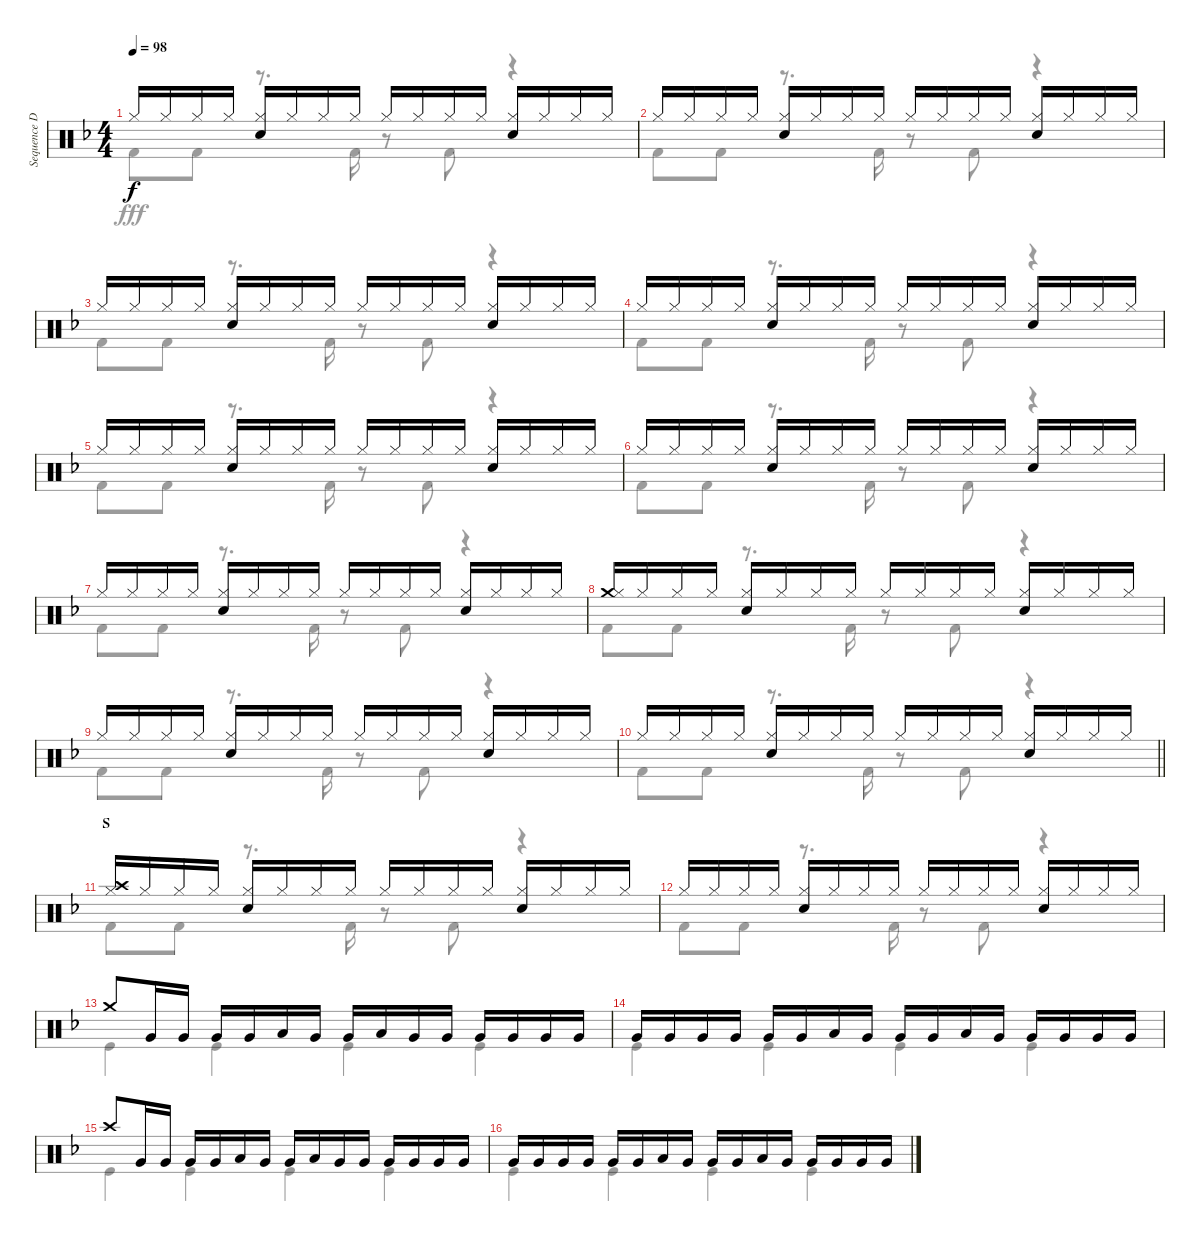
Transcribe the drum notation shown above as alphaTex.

\track ("Sequence Drums I" "Sequence D") {instrument percussion}
\staff {score}
\articulation defaults
\voice
\ts (4 4)
\tempo 98
\clef neutral
\ks f "Hi-Hat (closed)".16{dy f} "Hi-Hat (closed)".16 "Hi-Hat (closed)".16 "Hi-Hat (closed)".16
("Hi-Hat (closed)" "Electric Snare (hit)").16 "Hi-Hat (closed)".16 "Hi-Hat (closed)".16 "Hi-Hat (closed)".16 "Hi-Hat (closed)".16 "Hi-Hat (closed)".16 "Hi-Hat (closed)".16 "Hi-Hat (closed)".16 ("Hi-Hat (closed)" "Electric Snare (hit)").16 "Hi-Hat (closed)".16 "Hi-Hat (closed)".16 "Hi-Hat (closed)".16 |
"Hi-Hat (closed)".16 "Hi-Hat (closed)".16 "Hi-Hat (closed)".16 "Hi-Hat (closed)".16 ("Hi-Hat (closed)" "Electric Snare (hit)").16 "Hi-Hat (closed)".16 "Hi-Hat (closed)".16 "Hi-Hat (closed)".16 "Hi-Hat (closed)".16 "Hi-Hat (closed)".16 "Hi-Hat (closed)".16 "Hi-Hat (closed)".16 ("Hi-Hat (closed)" "Electric Snare (hit)").16 "Hi-Hat (closed)".16 "Hi-Hat (closed)".16 "Hi-Hat (closed)".16 |
"Hi-Hat (closed)".16 "Hi-Hat (closed)".16 "Hi-Hat (closed)".16 "Hi-Hat (closed)".16 ("Hi-Hat (closed)" "Electric Snare (hit)").16 "Hi-Hat (closed)".16 "Hi-Hat (closed)".16 "Hi-Hat (closed)".16 "Hi-Hat (closed)".16 "Hi-Hat (closed)".16 "Hi-Hat (closed)".16 "Hi-Hat (closed)".16 ("Hi-Hat (closed)" "Electric Snare (hit)").16 "Hi-Hat (closed)".16 "Hi-Hat (closed)".16 "Hi-Hat (closed)".16 |
"Hi-Hat (closed)".16 "Hi-Hat (closed)".16 "Hi-Hat (closed)".16 "Hi-Hat (closed)".16 ("Hi-Hat (closed)" "Electric Snare (hit)").16 "Hi-Hat (closed)".16 "Hi-Hat (closed)".16 "Hi-Hat (closed)".16 "Hi-Hat (closed)".16 "Hi-Hat (closed)".16 "Hi-Hat (closed)".16 "Hi-Hat (closed)".16 ("Hi-Hat (closed)" "Electric Snare (hit)").16 "Hi-Hat (closed)".16 "Hi-Hat (closed)".16 "Hi-Hat (closed)".16 |
"Hi-Hat (closed)".16 "Hi-Hat (closed)".16 "Hi-Hat (closed)".16 "Hi-Hat (closed)".16 ("Hi-Hat (closed)" "Electric Snare (hit)").16 "Hi-Hat (closed)".16 "Hi-Hat (closed)".16 "Hi-Hat (closed)".16 "Hi-Hat (closed)".16 "Hi-Hat (closed)".16 "Hi-Hat (closed)".16 "Hi-Hat (closed)".16 ("Hi-Hat (closed)" "Electric Snare (hit)").16 "Hi-Hat (closed)".16 "Hi-Hat (closed)".16 "Hi-Hat (closed)".16 |
"Hi-Hat (closed)".16 "Hi-Hat (closed)".16 "Hi-Hat (closed)".16 "Hi-Hat (closed)".16 ("Hi-Hat (closed)" "Electric Snare (hit)").16 "Hi-Hat (closed)".16 "Hi-Hat (closed)".16 "Hi-Hat (closed)".16 "Hi-Hat (closed)".16 "Hi-Hat (closed)".16 "Hi-Hat (closed)".16 "Hi-Hat (closed)".16 ("Hi-Hat (closed)" "Electric Snare (hit)").16 "Hi-Hat (closed)".16 "Hi-Hat (closed)".16 "Hi-Hat (closed)".16 |
"Hi-Hat (closed)".16 "Hi-Hat (closed)".16 "Hi-Hat (closed)".16 "Hi-Hat (closed)".16 ("Hi-Hat (closed)" "Electric Snare (hit)").16 "Hi-Hat (closed)".16 "Hi-Hat (closed)".16 "Hi-Hat (closed)".16 "Hi-Hat (closed)".16 "Hi-Hat (closed)".16 "Hi-Hat (closed)".16 "Hi-Hat (closed)".16 ("Hi-Hat (closed)" "Electric Snare (hit)").16 "Hi-Hat (closed)".16 "Hi-Hat (closed)".16 "Hi-Hat (closed)".16 |
("Crash medium (hit)" "Hi-Hat (closed)").16 "Hi-Hat (closed)".16 "Hi-Hat (closed)".16 "Hi-Hat (closed)".16 ("Hi-Hat (closed)" "Electric Snare (hit)").16 "Hi-Hat (closed)".16 "Hi-Hat (closed)".16 "Hi-Hat (closed)".16 "Hi-Hat (closed)".16 "Hi-Hat (closed)".16 "Hi-Hat (closed)".16 "Hi-Hat (closed)".16 ("Hi-Hat (closed)" "Electric Snare (hit)").16 "Hi-Hat (closed)".16 "Hi-Hat (closed)".16 "Hi-Hat (closed)".16 |
"Hi-Hat (closed)".16 "Hi-Hat (closed)".16 "Hi-Hat (closed)".16 "Hi-Hat (closed)".16 ("Hi-Hat (closed)" "Electric Snare (hit)").16 "Hi-Hat (closed)".16 "Hi-Hat (closed)".16 "Hi-Hat (closed)".16 "Hi-Hat (closed)".16 "Hi-Hat (closed)".16 "Hi-Hat (closed)".16 "Hi-Hat (closed)".16 ("Hi-Hat (closed)" "Electric Snare (hit)").16 "Hi-Hat (closed)".16 "Hi-Hat (closed)".16 "Hi-Hat (closed)".16 |
\barLineRight lightlight "Hi-Hat (closed)".16 "Hi-Hat (closed)".16 "Hi-Hat (closed)".16 "Hi-Hat (closed)".16
("Hi-Hat (closed)" "Electric Snare (hit)").16 "Hi-Hat (closed)".16 "Hi-Hat (closed)".16 "Hi-Hat (closed)".16 "Hi-Hat (closed)".16 "Hi-Hat (closed)".16 "Hi-Hat (closed)".16 "Hi-Hat (closed)".16 ("Hi-Hat (closed)" "Electric Snare (hit)").16 "Hi-Hat (closed)".16 "Hi-Hat (closed)".16 "Hi-Hat (closed)".16 |
\section ("" "S")
("Crash high (hit)" "Hi-Hat (closed)").16 "Hi-Hat (closed)".16 "Hi-Hat (closed)".16 "Hi-Hat (closed)".16 ("Hi-Hat (closed)" "Electric Snare (hit)").16 "Hi-Hat (closed)".16 "Hi-Hat (closed)".16 "Hi-Hat (closed)".16 "Hi-Hat (closed)".16 "Hi-Hat (closed)".16 "Hi-Hat (closed)".16 "Hi-Hat (closed)".16 ("Hi-Hat (closed)" "Electric Snare (hit)").16 "Hi-Hat (closed)".16 "Hi-Hat (closed)".16 "Hi-Hat (closed)".16 |
"Hi-Hat (closed)".16 "Hi-Hat (closed)".16 "Hi-Hat (closed)".16 "Hi-Hat (closed)".16 ("Hi-Hat (closed)" "Electric Snare (hit)").16 "Hi-Hat (closed)".16 "Hi-Hat (closed)".16 "Hi-Hat (closed)".16 "Hi-Hat (closed)".16 "Hi-Hat (closed)".16 "Hi-Hat (closed)".16 "Hi-Hat (closed)".16 ("Hi-Hat (closed)" "Electric Snare (hit)").16 "Hi-Hat (closed)".16 "Hi-Hat (closed)".16 "Hi-Hat (closed)".16 |
"Crash medium (hit)".8 "Very Low Tom (hit)".16 "Very Low Tom (hit)".16 "Very Low Tom (hit)".16 "Very Low Tom (hit)".16 "Low Tom (hit)".16 "Very Low Tom (hit)".16 "Very Low Tom (hit)".16 "Low Tom (hit)".16 "Very Low Tom (hit)".16 "Very Low Tom (hit)".16 "Very Low Tom (hit)".16 "Very Low Tom (hit)".16 "Very Low Tom (hit)".16 "Very Low Tom (hit)".16 |
"Very Low Tom (hit)".16 "Very Low Tom (hit)".16 "Very Low Tom (hit)".16 "Very Low Tom (hit)".16 "Very Low Tom (hit)".16 "Very Low Tom (hit)".16 "Low Tom (hit)".16 "Very Low Tom (hit)".16 "Very Low Tom (hit)".16 "Very Low Tom (hit)".16 "Low Tom (hit)".16 "Very Low Tom (hit)".16 "Very Low Tom (hit)".16 "Very Low Tom (hit)".16 "Very Low Tom (hit)".16 "Very Low Tom (hit)".16 |
"Crash high (hit)".8 "Very Low Tom (hit)".16 "Very Low Tom (hit)".16 "Very Low Tom (hit)".16 "Very Low Tom (hit)".16 "Low Tom (hit)".16 "Very Low Tom (hit)".16 "Very Low Tom (hit)".16 "Low Tom (hit)".16 "Very Low Tom (hit)".16 "Very Low Tom (hit)".16 "Very Low Tom (hit)".16 "Very Low Tom (hit)".16 "Very Low Tom (hit)".16 "Very Low Tom (hit)".16 |
"Very Low Tom (hit)".16 "Very Low Tom (hit)".16 "Very Low Tom (hit)".16 "Very Low Tom (hit)".16 "Very Low Tom (hit)".16 "Very Low Tom (hit)".16 "Low Tom (hit)".16 "Very Low Tom (hit)".16 "Very Low Tom (hit)".16 "Very Low Tom (hit)".16 "Low Tom (hit)".16 "Very Low Tom (hit)".16 "Very Low Tom (hit)".16 "Very Low Tom (hit)".16 "Very Low Tom (hit)".16 "Very Low Tom (hit)".16
\voice
\clef neutral
\ottava regular
\simile none
\ks f "Kick (hit) 2".8{dy fff} "Kick (hit) 2".8
r.8{d} "Kick (hit) 2".16 r.8 "Kick (hit) 2".8 r.4 |
"Kick (hit) 2".8 "Kick (hit) 2".8 r.8{d} "Kick (hit) 2".16 r.8 "Kick (hit) 2".8 r.4 |
"Kick (hit) 2".8 "Kick (hit) 2".8 r.8{d} "Kick (hit) 2".16 r.8 "Kick (hit) 2".8 r.4 |
"Kick (hit) 2".8 "Kick (hit) 2".8 r.8{d} "Kick (hit) 2".16 r.8 "Kick (hit) 2".8 r.4 |
"Kick (hit) 2".8 "Kick (hit) 2".8 r.8{d} "Kick (hit) 2".16 r.8 "Kick (hit) 2".8 r.4 |
"Kick (hit) 2".8 "Kick (hit) 2".8 r.8{d} "Kick (hit) 2".16 r.8 "Kick (hit) 2".8 r.4 |
"Kick (hit) 2".8 "Kick (hit) 2".8 r.8{d} "Kick (hit) 2".16 r.8 "Kick (hit) 2".8 r.4 |
"Kick (hit) 2".8 "Kick (hit) 2".8 r.8{d} "Kick (hit) 2".16 r.8 "Kick (hit) 2".8 r.4 |
"Kick (hit) 2".8 "Kick (hit) 2".8 r.8{d} "Kick (hit) 2".16 r.8 "Kick (hit) 2".8 r.4 |
\barLineRight lightlight "Kick (hit) 2".8 "Kick (hit) 2".8
r.8{d} "Kick (hit) 2".16 r.8 "Kick (hit) 2".8 r.4 |
"Kick (hit) 2".8 "Kick (hit) 2".8 r.8{d} "Kick (hit) 2".16 r.8 "Kick (hit) 2".8 r.4 |
"Kick (hit) 2".8 "Kick (hit) 2".8 r.8{d} "Kick (hit) 2".16 r.8 "Kick (hit) 2".8 r.4 |
"Kick (hit)".4 "Kick (hit)".4 "Kick (hit)".4 "Kick (hit)".4 |
"Kick (hit)".4 "Kick (hit)".4 "Kick (hit)".4 "Kick (hit)".4 |
"Kick (hit)".4 "Kick (hit)".4 "Kick (hit)".4 "Kick (hit)".4 |
"Kick (hit)".4 "Kick (hit)".4 "Kick (hit)".4 "Kick (hit)".4
